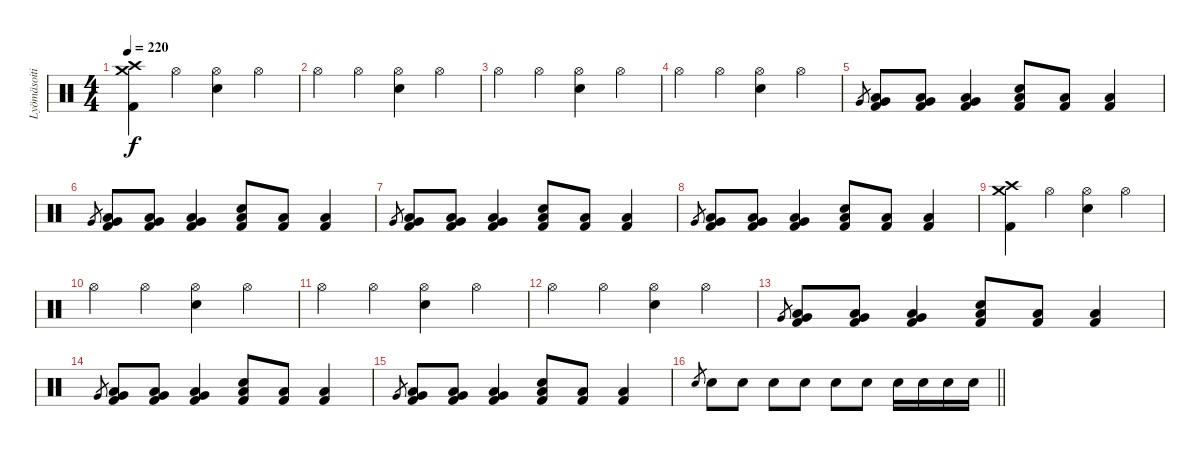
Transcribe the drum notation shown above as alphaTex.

\track ("Lyömäsoitin" "Lyömäsoiti") {instrument percussion}
\staff {score}
\articulation defaults
\ts (4 4)
\section ("" "")
\tempo 220
\clef neutral
\ks c
("Crash medium (hit)" "Crash high (hit)" "Kick (hit) 2").4{dy f} "Hi-Hat (open)".4 ("Hi-Hat (open)" "Electric Snare (hit)").4 "Hi-Hat (open)".4 |
"Hi-Hat (open)".4 "Hi-Hat (open)".4 ("Hi-Hat (open)" "Electric Snare (hit)").4 "Hi-Hat (open)".4 |
"Hi-Hat (open)".4 "Hi-Hat (open)".4 ("Hi-Hat (open)" "Electric Snare (hit)").4 "Hi-Hat (open)".4 |
"Hi-Hat (open)".4 "Hi-Hat (open)".4 ("Hi-Hat (open)" "Electric Snare (hit)").4 "Hi-Hat (open)".4 |
"Very Low Tom (hit)".8{gr} ("Very Low Tom (hit)" "Low Floor Tom (hit)" "Kick (hit) 2").8 ("Very Low Tom (hit)" "Low Floor Tom (hit)" "Kick (hit) 2").8 ("Very Low Tom (hit)" "Low Floor Tom (hit)" "Kick (hit) 2").4 ("Electric Snare (hit)" "Low Floor Tom (hit)" "Kick (hit) 2").8 ("Low Floor Tom (hit)" "Kick (hit) 2").8 ("Low Floor Tom (hit)" "Kick (hit) 2").4 |
"Very Low Tom (hit)".8{gr} ("Very Low Tom (hit)" "Low Floor Tom (hit)" "Kick (hit) 2").8 ("Very Low Tom (hit)" "Low Floor Tom (hit)" "Kick (hit) 2").8 ("Very Low Tom (hit)" "Low Floor Tom (hit)" "Kick (hit) 2").4 ("Electric Snare (hit)" "Low Floor Tom (hit)" "Kick (hit) 2").8 ("Low Floor Tom (hit)" "Kick (hit) 2").8 ("Low Floor Tom (hit)" "Kick (hit) 2").4 |
"Very Low Tom (hit)".8{gr} ("Very Low Tom (hit)" "Low Floor Tom (hit)" "Kick (hit) 2").8 ("Very Low Tom (hit)" "Low Floor Tom (hit)" "Kick (hit) 2").8 ("Very Low Tom (hit)" "Low Floor Tom (hit)" "Kick (hit) 2").4 ("Electric Snare (hit)" "Low Floor Tom (hit)" "Kick (hit) 2").8 ("Low Floor Tom (hit)" "Kick (hit) 2").8 ("Low Floor Tom (hit)" "Kick (hit) 2").4 |
"Very Low Tom (hit)".8{gr} ("Very Low Tom (hit)" "Low Floor Tom (hit)" "Kick (hit) 2").8 ("Very Low Tom (hit)" "Low Floor Tom (hit)" "Kick (hit) 2").8 ("Very Low Tom (hit)" "Low Floor Tom (hit)" "Kick (hit) 2").4 ("Electric Snare (hit)" "Low Floor Tom (hit)" "Kick (hit) 2").8 ("Low Floor Tom (hit)" "Kick (hit) 2").8 ("Low Floor Tom (hit)" "Kick (hit) 2").4 |
("Crash medium (hit)" "Crash high (hit)" "Kick (hit) 2").4 "Hi-Hat (open)".4 ("Hi-Hat (open)" "Electric Snare (hit)").4 "Hi-Hat (open)".4 |
"Hi-Hat (open)".4 "Hi-Hat (open)".4 ("Hi-Hat (open)" "Electric Snare (hit)").4 "Hi-Hat (open)".4 |
"Hi-Hat (open)".4 "Hi-Hat (open)".4 ("Hi-Hat (open)" "Electric Snare (hit)").4 "Hi-Hat (open)".4 |
"Hi-Hat (open)".4 "Hi-Hat (open)".4 ("Hi-Hat (open)" "Electric Snare (hit)").4 "Hi-Hat (open)".4 |
"Very Low Tom (hit)".8{gr} ("Very Low Tom (hit)" "Low Floor Tom (hit)" "Kick (hit) 2").8 ("Very Low Tom (hit)" "Low Floor Tom (hit)" "Kick (hit) 2").8 ("Very Low Tom (hit)" "Low Floor Tom (hit)" "Kick (hit) 2").4 ("Electric Snare (hit)" "Low Floor Tom (hit)" "Kick (hit) 2").8 ("Low Floor Tom (hit)" "Kick (hit) 2").8 ("Low Floor Tom (hit)" "Kick (hit) 2").4 |
"Very Low Tom (hit)".8{gr} ("Very Low Tom (hit)" "Low Floor Tom (hit)" "Kick (hit) 2").8 ("Very Low Tom (hit)" "Low Floor Tom (hit)" "Kick (hit) 2").8 ("Very Low Tom (hit)" "Low Floor Tom (hit)" "Kick (hit) 2").4 ("Electric Snare (hit)" "Low Floor Tom (hit)" "Kick (hit) 2").8 ("Low Floor Tom (hit)" "Kick (hit) 2").8 ("Low Floor Tom (hit)" "Kick (hit) 2").4 |
"Very Low Tom (hit)".8{gr} ("Very Low Tom (hit)" "Low Floor Tom (hit)" "Kick (hit) 2").8 ("Very Low Tom (hit)" "Low Floor Tom (hit)" "Kick (hit) 2").8 ("Very Low Tom (hit)" "Low Floor Tom (hit)" "Kick (hit) 2").4 ("Electric Snare (hit)" "Low Floor Tom (hit)" "Kick (hit) 2").8 ("Low Floor Tom (hit)" "Kick (hit) 2").8 ("Low Floor Tom (hit)" "Kick (hit) 2").4 |
\barLineRight lightlight "Electric Snare (hit)".8{gr} "Electric Snare (hit)".8 "Electric Snare (hit)".8 "Electric Snare (hit)".8 "Electric Snare (hit)".8 "Electric Snare (hit)".8 "Electric Snare (hit)".8 "Electric Snare (hit)".16 "Electric Snare (hit)".16 "Electric Snare (hit)".16 "Electric Snare (hit)".16
